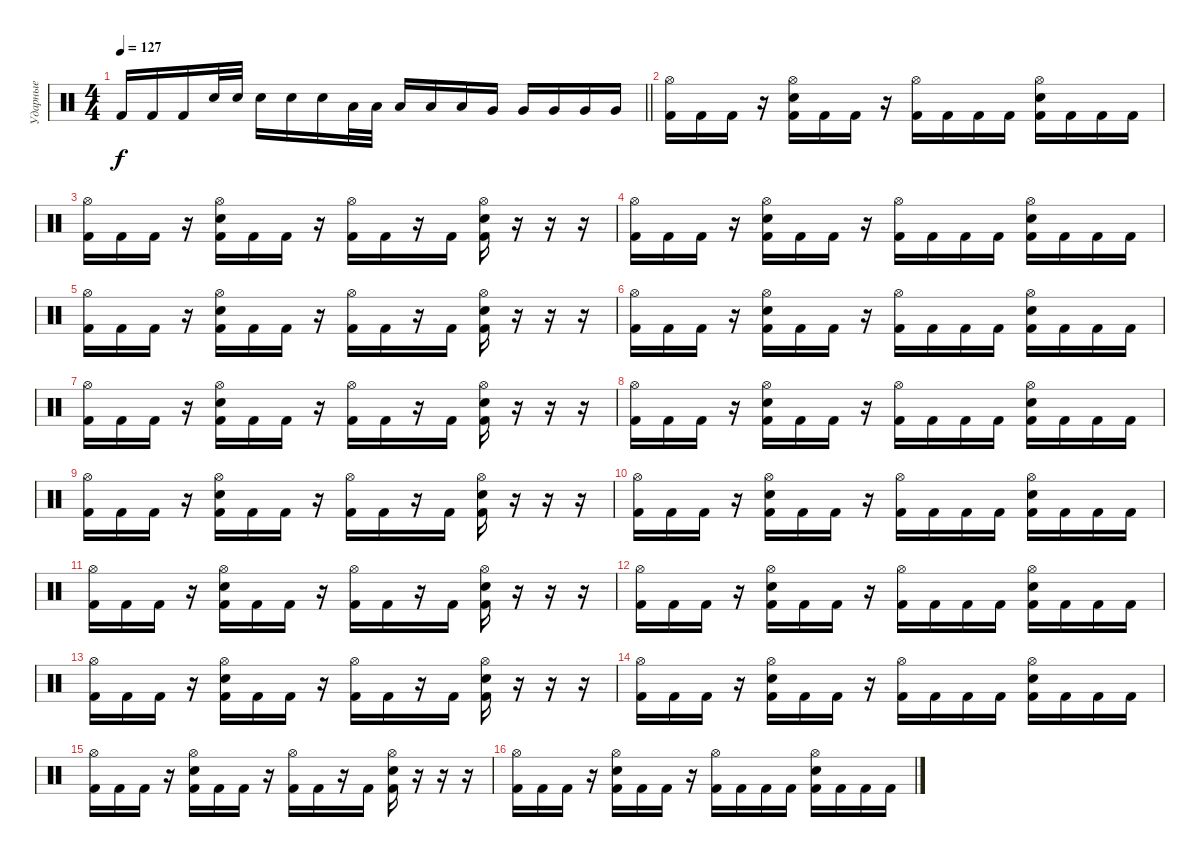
\track ("Ударные" "Ударные") {instrument percussion}
\staff {score}
\articulation defaults
\ts (4 4)
\tempo 127
\clef neutral
\barLineRight lightlight
\ks c "Kick (hit) 2".16{dy f} "Kick (hit) 2".16 "Kick (hit) 2".16 "Electric Snare (hit)".32 "Electric Snare (hit)".32 "Electric Snare (hit)".16 "Electric Snare (hit)".16 "Electric Snare (hit)".16 "Low Tom (hit)".32 "Low Tom (hit)".32 "Low Tom (hit)".16 "Low Tom (hit)".16 "Low Tom (hit)".16 "Very Low Tom (hit)".16 "Very Low Tom (hit)".16 "Very Low Tom (hit)".16 "Very Low Tom (hit)".16 "Very Low Tom (hit)".16
|
\section ("" "")
("Hi-Hat (open)" "Kick (hit) 2").16 "Kick (hit) 2".16 "Kick (hit) 2".16 r.16 ("Hi-Hat (open)" "Electric Snare (hit)" "Kick (hit) 2").16 "Kick (hit) 2".16 "Kick (hit) 2".16 r.16 ("Hi-Hat (open)" "Kick (hit) 2").16 "Kick (hit) 2".16 "Kick (hit) 2".16 "Kick (hit) 2".16 ("Hi-Hat (open)" "Electric Snare (hit)" "Kick (hit) 2").16 "Kick (hit) 2".16 "Kick (hit) 2".16 "Kick (hit) 2".16 |
("Hi-Hat (open)" "Kick (hit) 2").16 "Kick (hit) 2".16 "Kick (hit) 2".16 r.16 ("Hi-Hat (open)" "Electric Snare (hit)" "Kick (hit) 2").16 "Kick (hit) 2".16 "Kick (hit) 2".16 r.16 ("Hi-Hat (open)" "Kick (hit) 2").16 "Kick (hit) 2".16 r.16 "Kick (hit) 2".16 ("Hi-Hat (open)" "Electric Snare (hit)" "Kick (hit) 2").16 r.16 r.16 r.16 |
("Hi-Hat (open)" "Kick (hit) 2").16 "Kick (hit) 2".16 "Kick (hit) 2".16 r.16 ("Hi-Hat (open)" "Electric Snare (hit)" "Kick (hit) 2").16 "Kick (hit) 2".16 "Kick (hit) 2".16 r.16 ("Hi-Hat (open)" "Kick (hit) 2").16 "Kick (hit) 2".16 "Kick (hit) 2".16 "Kick (hit) 2".16 ("Hi-Hat (open)" "Electric Snare (hit)" "Kick (hit) 2").16 "Kick (hit) 2".16 "Kick (hit) 2".16 "Kick (hit) 2".16 |
("Hi-Hat (open)" "Kick (hit) 2").16 "Kick (hit) 2".16 "Kick (hit) 2".16 r.16 ("Hi-Hat (open)" "Electric Snare (hit)" "Kick (hit) 2").16 "Kick (hit) 2".16 "Kick (hit) 2".16 r.16 ("Hi-Hat (open)" "Kick (hit) 2").16 "Kick (hit) 2".16 r.16 "Kick (hit) 2".16 ("Hi-Hat (open)" "Electric Snare (hit)" "Kick (hit) 2").16 r.16 r.16 r.16 |
("Hi-Hat (open)" "Kick (hit) 2").16 "Kick (hit) 2".16 "Kick (hit) 2".16 r.16 ("Hi-Hat (open)" "Electric Snare (hit)" "Kick (hit) 2").16 "Kick (hit) 2".16 "Kick (hit) 2".16 r.16 ("Hi-Hat (open)" "Kick (hit) 2").16 "Kick (hit) 2".16 "Kick (hit) 2".16 "Kick (hit) 2".16 ("Hi-Hat (open)" "Electric Snare (hit)" "Kick (hit) 2").16 "Kick (hit) 2".16 "Kick (hit) 2".16 "Kick (hit) 2".16 |
("Hi-Hat (open)" "Kick (hit) 2").16 "Kick (hit) 2".16 "Kick (hit) 2".16 r.16 ("Hi-Hat (open)" "Electric Snare (hit)" "Kick (hit) 2").16 "Kick (hit) 2".16 "Kick (hit) 2".16 r.16 ("Hi-Hat (open)" "Kick (hit) 2").16 "Kick (hit) 2".16 r.16 "Kick (hit) 2".16 ("Hi-Hat (open)" "Electric Snare (hit)" "Kick (hit) 2").16 r.16 r.16 r.16 |
("Hi-Hat (open)" "Kick (hit) 2").16 "Kick (hit) 2".16 "Kick (hit) 2".16 r.16 ("Hi-Hat (open)" "Electric Snare (hit)" "Kick (hit) 2").16 "Kick (hit) 2".16 "Kick (hit) 2".16 r.16 ("Hi-Hat (open)" "Kick (hit) 2").16 "Kick (hit) 2".16 "Kick (hit) 2".16 "Kick (hit) 2".16 ("Hi-Hat (open)" "Electric Snare (hit)" "Kick (hit) 2").16 "Kick (hit) 2".16 "Kick (hit) 2".16 "Kick (hit) 2".16 |
("Hi-Hat (open)" "Kick (hit) 2").16 "Kick (hit) 2".16 "Kick (hit) 2".16 r.16 ("Hi-Hat (open)" "Electric Snare (hit)" "Kick (hit) 2").16 "Kick (hit) 2".16 "Kick (hit) 2".16 r.16 ("Hi-Hat (open)" "Kick (hit) 2").16 "Kick (hit) 2".16 r.16 "Kick (hit) 2".16 ("Hi-Hat (open)" "Electric Snare (hit)" "Kick (hit) 2").16 r.16 r.16 r.16 |
("Hi-Hat (open)" "Kick (hit) 2").16 "Kick (hit) 2".16 "Kick (hit) 2".16 r.16 ("Hi-Hat (open)" "Electric Snare (hit)" "Kick (hit) 2").16 "Kick (hit) 2".16 "Kick (hit) 2".16 r.16 ("Hi-Hat (open)" "Kick (hit) 2").16 "Kick (hit) 2".16 "Kick (hit) 2".16 "Kick (hit) 2".16 ("Hi-Hat (open)" "Electric Snare (hit)" "Kick (hit) 2").16 "Kick (hit) 2".16 "Kick (hit) 2".16 "Kick (hit) 2".16 |
("Hi-Hat (open)" "Kick (hit) 2").16 "Kick (hit) 2".16 "Kick (hit) 2".16 r.16 ("Hi-Hat (open)" "Electric Snare (hit)" "Kick (hit) 2").16 "Kick (hit) 2".16 "Kick (hit) 2".16 r.16 ("Hi-Hat (open)" "Kick (hit) 2").16 "Kick (hit) 2".16 r.16 "Kick (hit) 2".16 ("Hi-Hat (open)" "Electric Snare (hit)" "Kick (hit) 2").16 r.16 r.16 r.16 |
("Hi-Hat (open)" "Kick (hit) 2").16 "Kick (hit) 2".16 "Kick (hit) 2".16 r.16 ("Hi-Hat (open)" "Electric Snare (hit)" "Kick (hit) 2").16 "Kick (hit) 2".16 "Kick (hit) 2".16 r.16 ("Hi-Hat (open)" "Kick (hit) 2").16 "Kick (hit) 2".16 "Kick (hit) 2".16 "Kick (hit) 2".16 ("Hi-Hat (open)" "Electric Snare (hit)" "Kick (hit) 2").16 "Kick (hit) 2".16 "Kick (hit) 2".16 "Kick (hit) 2".16 |
("Hi-Hat (open)" "Kick (hit) 2").16 "Kick (hit) 2".16 "Kick (hit) 2".16 r.16 ("Hi-Hat (open)" "Electric Snare (hit)" "Kick (hit) 2").16 "Kick (hit) 2".16 "Kick (hit) 2".16 r.16 ("Hi-Hat (open)" "Kick (hit) 2").16 "Kick (hit) 2".16 r.16 "Kick (hit) 2".16 ("Hi-Hat (open)" "Electric Snare (hit)" "Kick (hit) 2").16 r.16 r.16 r.16 |
("Hi-Hat (open)" "Kick (hit) 2").16 "Kick (hit) 2".16 "Kick (hit) 2".16 r.16 ("Hi-Hat (open)" "Electric Snare (hit)" "Kick (hit) 2").16 "Kick (hit) 2".16 "Kick (hit) 2".16 r.16 ("Hi-Hat (open)" "Kick (hit) 2").16 "Kick (hit) 2".16 "Kick (hit) 2".16 "Kick (hit) 2".16 ("Hi-Hat (open)" "Electric Snare (hit)" "Kick (hit) 2").16 "Kick (hit) 2".16 "Kick (hit) 2".16 "Kick (hit) 2".16 |
("Hi-Hat (open)" "Kick (hit) 2").16 "Kick (hit) 2".16 "Kick (hit) 2".16 r.16 ("Hi-Hat (open)" "Electric Snare (hit)" "Kick (hit) 2").16 "Kick (hit) 2".16 "Kick (hit) 2".16 r.16 ("Hi-Hat (open)" "Kick (hit) 2").16 "Kick (hit) 2".16 r.16 "Kick (hit) 2".16 ("Hi-Hat (open)" "Electric Snare (hit)" "Kick (hit) 2").16 r.16 r.16 r.16 |
("Hi-Hat (open)" "Kick (hit) 2").16 "Kick (hit) 2".16 "Kick (hit) 2".16 r.16 ("Hi-Hat (open)" "Electric Snare (hit)" "Kick (hit) 2").16 "Kick (hit) 2".16 "Kick (hit) 2".16 r.16 ("Hi-Hat (open)" "Kick (hit) 2").16 "Kick (hit) 2".16 "Kick (hit) 2".16 "Kick (hit) 2".16 ("Hi-Hat (open)" "Electric Snare (hit)" "Kick (hit) 2").16 "Kick (hit) 2".16 "Kick (hit) 2".16 "Kick (hit) 2".16
